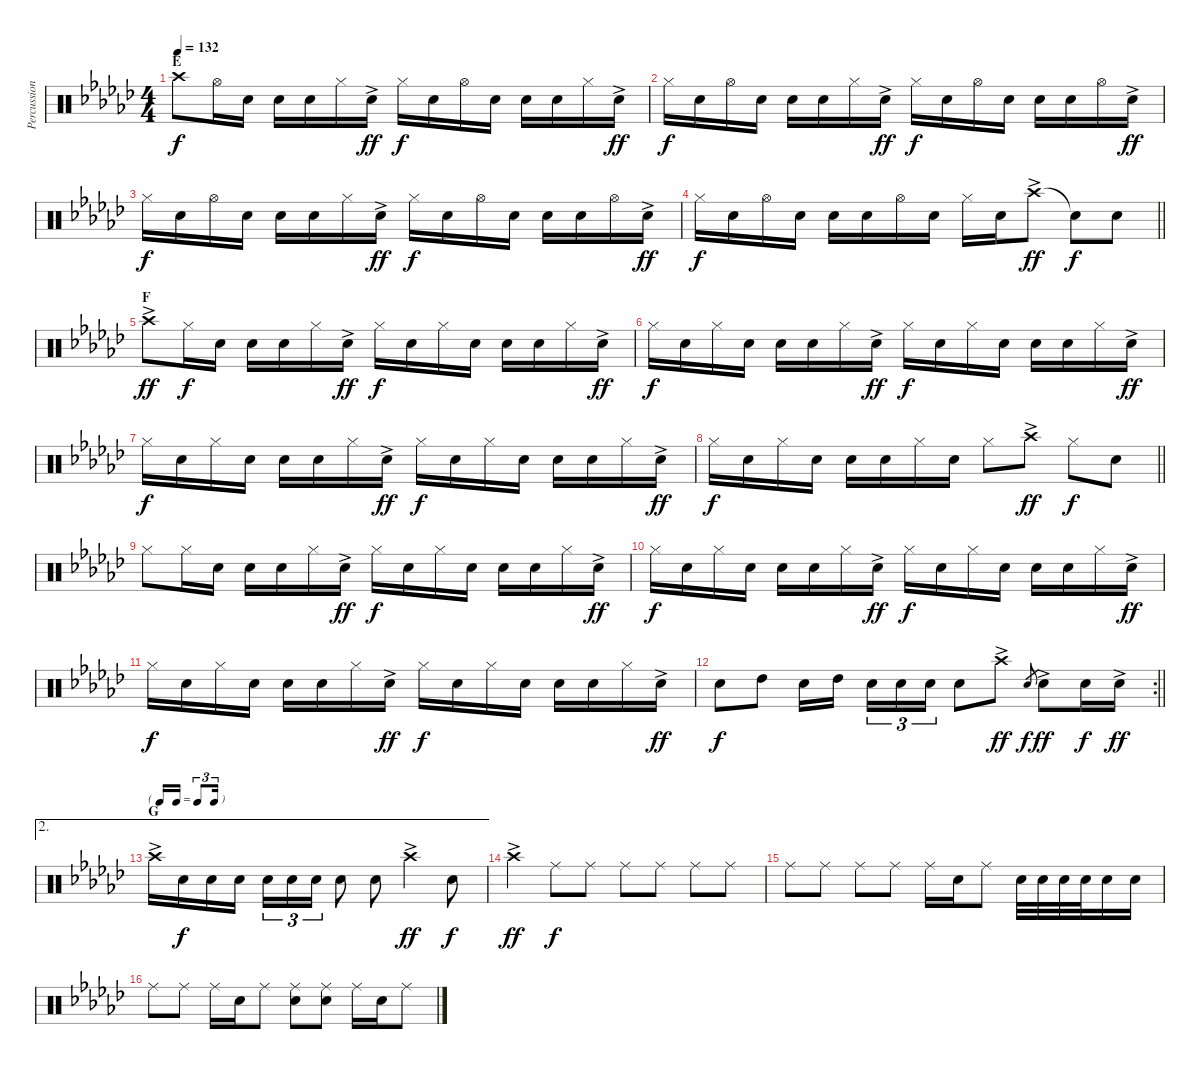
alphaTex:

\track ("Percussion hand" "Percussion") {instrument percussion}
\staff {score}
\articulation defaults
\ts (4 4)
\section ("" "E")
\tempo 132
\clef neutral
\ks gb "Crash high (hit)".8{dy f} "Hi-Hat (open)".16 "Snare (hit) 2".16 "Snare (hit) 2".16 "Snare (hit) 2".16 "Hi-Hat (closed)".16 "Snare (hit) 2"{ac}.16{dy ff} "Hi-Hat (closed)".16{dy f} "Snare (hit) 2".16 "Hi-Hat (open)".16 "Snare (hit) 2".16 "Snare (hit) 2".16 "Snare (hit) 2".16 "Hi-Hat (closed)".16 "Snare (hit) 2"{ac}.16{dy ff}
|
"Hi-Hat (closed)".16{dy f} "Snare (hit) 2".16 "Hi-Hat (open)".16 "Snare (hit) 2".16 "Snare (hit) 2".16 "Snare (hit) 2".16 "Hi-Hat (closed)".16 "Snare (hit) 2"{ac}.16{dy ff} "Hi-Hat (closed)".16{dy f} "Snare (hit) 2".16 "Hi-Hat (open)".16 "Snare (hit) 2".16 "Snare (hit) 2".16 "Snare (hit) 2".16 "Hi-Hat (open)".16 "Snare (hit) 2"{ac}.16{dy ff} |
"Hi-Hat (closed)".16{dy f} "Snare (hit) 2".16 "Hi-Hat (open)".16 "Snare (hit) 2".16 "Snare (hit) 2".16 "Snare (hit) 2".16 "Hi-Hat (closed)".16 "Snare (hit) 2"{ac}.16{dy ff} "Hi-Hat (closed)".16{dy f} "Snare (hit) 2".16 "Hi-Hat (open)".16 "Snare (hit) 2".16 "Snare (hit) 2".16 "Snare (hit) 2".16 "Hi-Hat (open)".16 "Snare (hit) 2"{ac}.16{dy ff} |
\barLineRight lightlight "Hi-Hat (closed)".16{dy f} "Snare (hit) 2".16 "Hi-Hat (open)".16 "Snare (hit) 2".16 "Snare (hit) 2".16 "Snare (hit) 2".16 "Hi-Hat (open)".16 "Snare (hit) 2".16 "Hi-Hat (closed)".16 "Snare (hit) 2".16 "Crash high (hit)"{ac}.8{dy ff} "Snare (hit)"{t}.8{dy f} "Snare (hit) 2".8
|
\section ("" "F")
"Crash high (hit)"{ac}.8{dy ff} "Hi-Hat (closed)".16{dy f} "Snare (hit) 2".16 "Snare (hit) 2".16 "Snare (hit) 2".16 "Hi-Hat (closed)".16 "Snare (hit) 2"{ac}.16{dy ff} "Hi-Hat (closed)".16{dy f} "Snare (hit) 2".16 "Hi-Hat (closed)".16 "Snare (hit) 2".16 "Snare (hit) 2".16 "Snare (hit) 2".16 "Hi-Hat (closed)".16 "Snare (hit) 2"{ac}.16{dy ff} |
"Hi-Hat (closed)".16{dy f} "Snare (hit) 2".16 "Hi-Hat (closed)".16 "Snare (hit) 2".16 "Snare (hit) 2".16 "Snare (hit) 2".16 "Hi-Hat (closed)".16 "Snare (hit) 2"{ac}.16{dy ff} "Hi-Hat (closed)".16{dy f} "Snare (hit) 2".16 "Hi-Hat (closed)".16 "Snare (hit) 2".16 "Snare (hit) 2".16 "Snare (hit) 2".16 "Hi-Hat (closed)".16 "Snare (hit) 2"{ac}.16{dy ff} |
"Hi-Hat (closed)".16{dy f} "Snare (hit) 2".16 "Hi-Hat (closed)".16 "Snare (hit) 2".16 "Snare (hit) 2".16 "Snare (hit) 2".16 "Hi-Hat (closed)".16 "Snare (hit) 2"{ac}.16{dy ff} "Hi-Hat (closed)".16{dy f} "Snare (hit) 2".16 "Hi-Hat (closed)".16 "Snare (hit) 2".16 "Snare (hit) 2".16 "Snare (hit) 2".16 "Hi-Hat (closed)".16 "Snare (hit) 2"{ac}.16{dy ff} |
\barLineRight lightlight "Hi-Hat (closed)".16{dy f} "Snare (hit) 2".16 "Hi-Hat (closed)".16 "Snare (hit) 2".16 "Snare (hit) 2".16 "Snare (hit) 2".16 "Hi-Hat (closed)".16 "Snare (hit) 2".16 "Hi-Hat (closed)".8 "Crash high (hit)"{ac}.8{dy ff} "Hi-Hat (closed)".8{dy f} "Snare (hit) 2".8
|
"Hi-Hat (closed)".8 "Hi-Hat (closed)".16 "Snare (hit) 2".16 "Snare (hit) 2".16 "Snare (hit) 2".16 "Hi-Hat (closed)".16 "Snare (hit) 2"{ac}.16{dy ff} "Hi-Hat (closed)".16{dy f} "Snare (hit) 2".16 "Hi-Hat (closed)".16 "Snare (hit) 2".16 "Snare (hit) 2".16 "Snare (hit) 2".16 "Hi-Hat (closed)".16 "Snare (hit) 2"{ac}.16{dy ff} |
"Hi-Hat (closed)".16{dy f} "Snare (hit) 2".16 "Hi-Hat (closed)".16 "Snare (hit) 2".16 "Snare (hit) 2".16 "Snare (hit) 2".16 "Hi-Hat (closed)".16 "Snare (hit) 2"{ac}.16{dy ff} "Hi-Hat (closed)".16{dy f} "Snare (hit) 2".16 "Hi-Hat (closed)".16 "Snare (hit) 2".16 "Snare (hit) 2".16 "Snare (hit) 2".16 "Hi-Hat (closed)".16 "Snare (hit) 2"{ac}.16{dy ff} |
"Hi-Hat (closed)".16{dy f} "Snare (hit) 2".16 "Hi-Hat (closed)".16 "Snare (hit) 2".16 "Snare (hit) 2".16 "Snare (hit) 2".16 "Hi-Hat (closed)".16 "Snare (hit) 2"{ac}.16{dy ff} "Hi-Hat (closed)".16{dy f} "Snare (hit) 2".16 "Hi-Hat (closed)".16 "Snare (hit) 2".16 "Snare (hit) 2".16 "Snare (hit) 2".16 "Hi-Hat (closed)".16 "Snare (hit) 2"{ac}.16{dy ff} |
\rc 2
\barLineRight lightlight "Snare (hit) 2".8{dy f} "High Tom (hit)".8 "Snare (hit) 2".16 "High Tom (hit)".16{beam splitsecondary} "Snare (hit) 2".16{tu (3 2)} "Snare (hit) 2".16{tu (3 2)} "Snare (hit) 2".16{tu (3 2)} "Snare (hit) 2".8 "Crash high (hit)"{ac}.8{dy ff} "Snare (hit) 2".8{gr dy f} "Snare (hit) 2"{ac}.8{dy ff} "Snare (hit) 2".16{dy f} "Snare (hit) 2"{ac}.16{dy ff}
|
\ae 2
\tf triplet16th
\section ("" "G")
"Crash high (hit)"{ac}.16 "Snare (hit) 2".16{dy f} "Snare (hit) 2".16 "Snare (hit) 2".16 "Snare (hit) 2".16{tu (3 2)} "Snare (hit) 2".16{tu (3 2)} "Snare (hit) 2".16{tu (3 2)} "Snare (hit) 2".8 "Snare (hit) 2".8 "Crash high (hit)"{ac}.4{dy ff} "Snare (hit) 2".8{dy f} |
"Crash high (hit)"{ac}.4{dy ff} "Ride (middle)".8{dy f} "Ride (middle)".8 "Ride (middle)".8 "Ride (middle)".8 "Ride (middle)".8 "Ride (middle)".8 |
"Ride (middle)".8 "Ride (middle)".8 "Ride (middle)".8 "Ride (middle)".8 "Ride (middle)".16 "Snare (hit) 2".16 "Ride (middle)".8 "Snare (hit) 2".32 "Snare (hit) 2".32 "Snare (hit) 2".32 "Snare (hit) 2".32 "Snare (hit) 2".16 "Snare (hit) 2".16 |
"Ride (middle)".8 "Ride (middle)".8 "Ride (middle)".16 "Snare (hit) 2".16 "Ride (middle)".8 ("Ride (middle)" "Snare (hit) 2").8 ("Ride (middle)" "Snare (hit) 2").8 "Ride (middle)".16 "Snare (hit) 2".16 "Ride (middle)".8
